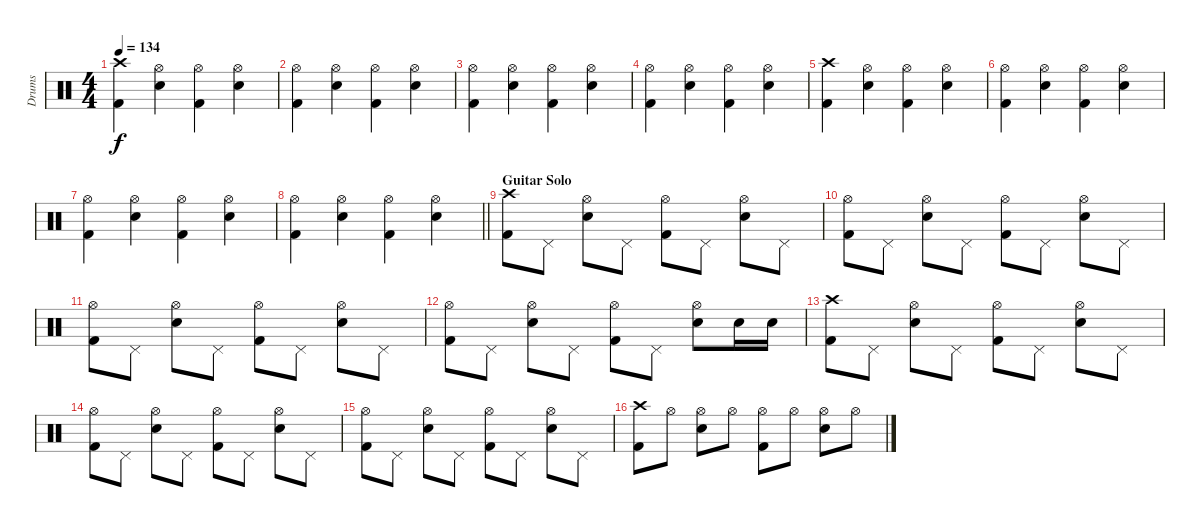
\track ("Drums" "Drums") {instrument percussion}
\staff {score}
\articulation defaults
\ts (4 4)
\tempo 134
\clef neutral
\ks c
("Crash high (hit)" "Kick (hit) 2").4{dy f} ("Hi-Hat (open)" "Snare (hit) 2").4 ("Hi-Hat (open)" "Kick (hit) 2").4 ("Hi-Hat (open)" "Snare (hit) 2").4 |
("Hi-Hat (open)" "Kick (hit) 2").4 ("Hi-Hat (open)" "Snare (hit) 2").4 ("Hi-Hat (open)" "Kick (hit) 2").4 ("Hi-Hat (open)" "Snare (hit) 2").4 |
("Hi-Hat (open)" "Kick (hit) 2").4 ("Hi-Hat (open)" "Snare (hit) 2").4 ("Hi-Hat (open)" "Kick (hit) 2").4 ("Hi-Hat (open)" "Snare (hit) 2").4 |
("Hi-Hat (open)" "Kick (hit) 2").4 ("Hi-Hat (open)" "Snare (hit) 2").4 ("Hi-Hat (open)" "Kick (hit) 2").4 ("Hi-Hat (open)" "Snare (hit) 2").4 |
("Crash high (hit)" "Kick (hit) 2").4 ("Hi-Hat (open)" "Snare (hit) 2").4 ("Hi-Hat (open)" "Kick (hit) 2").4 ("Hi-Hat (open)" "Snare (hit) 2").4 |
("Hi-Hat (open)" "Kick (hit) 2").4 ("Hi-Hat (open)" "Snare (hit) 2").4 ("Hi-Hat (open)" "Kick (hit) 2").4 ("Hi-Hat (open)" "Snare (hit) 2").4 |
("Hi-Hat (open)" "Kick (hit) 2").4 ("Hi-Hat (open)" "Snare (hit) 2").4 ("Hi-Hat (open)" "Kick (hit) 2").4 ("Hi-Hat (open)" "Snare (hit) 2").4 |
\barLineRight lightlight
("Hi-Hat (open)" "Kick (hit) 2").4 ("Hi-Hat (open)" "Snare (hit) 2").4 ("Hi-Hat (open)" "Kick (hit) 2").4 ("Hi-Hat (open)" "Snare (hit) 2").4 |
\section ("" "Guitar Solo")
("Crash high (hit)" "Kick (hit) 2").8 "Pedal Hi-Hat (hit)".8 ("Hi-Hat (open)" "Snare (hit) 2").8 "Pedal Hi-Hat (hit)".8 ("Hi-Hat (open)" "Kick (hit) 2").8 "Pedal Hi-Hat (hit)".8 ("Hi-Hat (open)" "Snare (hit) 2").8 "Pedal Hi-Hat (hit)".8 |
("Hi-Hat (open)" "Kick (hit) 2").8 "Pedal Hi-Hat (hit)".8 ("Hi-Hat (open)" "Snare (hit) 2").8 "Pedal Hi-Hat (hit)".8 ("Hi-Hat (open)" "Kick (hit) 2").8 "Pedal Hi-Hat (hit)".8 ("Hi-Hat (open)" "Snare (hit) 2").8 "Pedal Hi-Hat (hit)".8 |
("Hi-Hat (open)" "Kick (hit) 2").8 "Pedal Hi-Hat (hit)".8 ("Hi-Hat (open)" "Snare (hit) 2").8 "Pedal Hi-Hat (hit)".8 ("Hi-Hat (open)" "Kick (hit) 2").8 "Pedal Hi-Hat (hit)".8 ("Hi-Hat (open)" "Snare (hit) 2").8 "Pedal Hi-Hat (hit)".8 |
("Hi-Hat (open)" "Kick (hit) 2").8 "Pedal Hi-Hat (hit)".8 ("Hi-Hat (open)" "Snare (hit) 2").8 "Pedal Hi-Hat (hit)".8 ("Hi-Hat (open)" "Kick (hit) 2").8 "Pedal Hi-Hat (hit)".8 ("Hi-Hat (open)" "Snare (hit) 2").8 "Snare (hit) 2".16 "Snare (hit) 2".16 |
("Crash high (hit)" "Kick (hit) 2").8 "Pedal Hi-Hat (hit)".8 ("Hi-Hat (open)" "Snare (hit) 2").8 "Pedal Hi-Hat (hit)".8 ("Hi-Hat (open)" "Kick (hit) 2").8 "Pedal Hi-Hat (hit)".8 ("Hi-Hat (open)" "Snare (hit) 2").8 "Pedal Hi-Hat (hit)".8 |
("Hi-Hat (open)" "Kick (hit) 2").8 "Pedal Hi-Hat (hit)".8 ("Hi-Hat (open)" "Snare (hit) 2").8 "Pedal Hi-Hat (hit)".8 ("Hi-Hat (open)" "Kick (hit) 2").8 "Pedal Hi-Hat (hit)".8 ("Hi-Hat (open)" "Snare (hit) 2").8 "Pedal Hi-Hat (hit)".8 |
("Hi-Hat (open)" "Kick (hit) 2").8 "Pedal Hi-Hat (hit)".8 ("Hi-Hat (open)" "Snare (hit) 2").8 "Pedal Hi-Hat (hit)".8 ("Hi-Hat (open)" "Kick (hit) 2").8 "Pedal Hi-Hat (hit)".8 ("Hi-Hat (open)" "Snare (hit) 2").8 "Pedal Hi-Hat (hit)".8 |
("Crash high (hit)" "Kick (hit) 2").8 "Hi-Hat (open)".8 ("Hi-Hat (open)" "Snare (hit) 2").8 "Hi-Hat (open)".8 ("Hi-Hat (open)" "Kick (hit) 2").8 "Hi-Hat (open)".8 ("Hi-Hat (open)" "Snare (hit) 2").8 "Hi-Hat (open)".8
